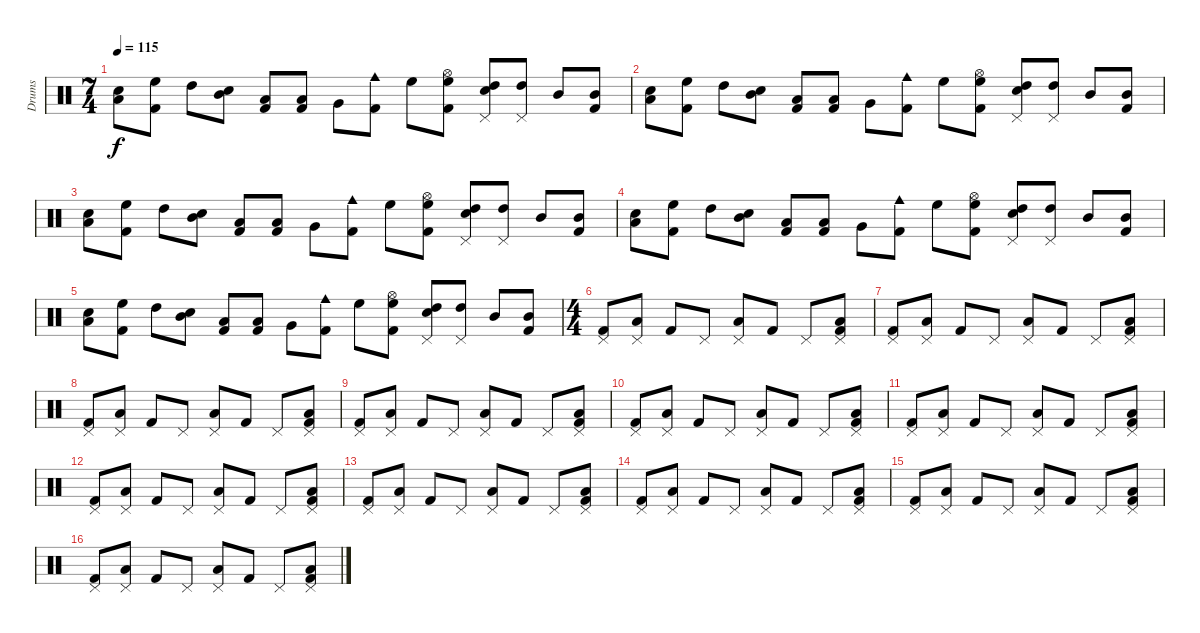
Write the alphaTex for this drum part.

\track ("Drums" "Drums") {instrument percussion}
\staff {score}
\articulation defaults
\ts (7 4)
\tempo 115
\clef neutral
\ks c
("Low Floor Tom (hit)" "Electric Snare (hit)").8{dy f} ("High Floor Tom (hit)" "Kick (hit) 2").8 "High Tom (hit)".8 ("Mid Tom (hit)" "Electric Snare (hit)").8 ("Low Tom (hit)" "Kick (hit) 2").8 ("Low Floor Tom (hit)" "Kick (hit) 2").8 "Very Low Tom (hit)".8 ("Cowbell medium (hit)" "Kick (hit) 2").8 "High Floor Tom (hit)".8 ("High Floor Tom (hit)" "Hi-Hat (open)" "Kick (hit) 2").8 ("High Tom (hit)" "Electric Snare (hit)" "Pedal Hi-Hat (hit)").8 ("High Tom (hit)" "Pedal Hi-Hat (hit)").8 "Mid Tom (hit)".8 ("Mid Tom (hit)" "Kick (hit) 2").8 |
("Low Floor Tom (hit)" "Electric Snare (hit)").8 ("High Floor Tom (hit)" "Kick (hit) 2").8 "High Tom (hit)".8 ("Mid Tom (hit)" "Electric Snare (hit)").8 ("Low Tom (hit)" "Kick (hit) 2").8 ("Low Floor Tom (hit)" "Kick (hit) 2").8 "Very Low Tom (hit)".8 ("Cowbell medium (hit)" "Kick (hit) 2").8 "High Floor Tom (hit)".8 ("High Floor Tom (hit)" "Hi-Hat (open)" "Kick (hit) 2").8 ("High Tom (hit)" "Electric Snare (hit)" "Pedal Hi-Hat (hit)").8 ("High Tom (hit)" "Pedal Hi-Hat (hit)").8 "Mid Tom (hit)".8 ("Mid Tom (hit)" "Kick (hit) 2").8 |
("Low Floor Tom (hit)" "Electric Snare (hit)").8 ("High Floor Tom (hit)" "Kick (hit) 2").8 "High Tom (hit)".8 ("Mid Tom (hit)" "Electric Snare (hit)").8 ("Low Tom (hit)" "Kick (hit) 2").8 ("Low Floor Tom (hit)" "Kick (hit) 2").8 "Very Low Tom (hit)".8 ("Cowbell medium (hit)" "Kick (hit) 2").8 "High Floor Tom (hit)".8 ("High Floor Tom (hit)" "Hi-Hat (open)" "Kick (hit) 2").8 ("High Tom (hit)" "Electric Snare (hit)" "Pedal Hi-Hat (hit)").8 ("High Tom (hit)" "Pedal Hi-Hat (hit)").8 "Mid Tom (hit)".8 ("Mid Tom (hit)" "Kick (hit) 2").8 |
("Low Floor Tom (hit)" "Electric Snare (hit)").8 ("High Floor Tom (hit)" "Kick (hit) 2").8 "High Tom (hit)".8 ("Mid Tom (hit)" "Electric Snare (hit)").8 ("Low Tom (hit)" "Kick (hit) 2").8 ("Low Floor Tom (hit)" "Kick (hit) 2").8 "Very Low Tom (hit)".8 ("Cowbell medium (hit)" "Kick (hit) 2").8 "High Floor Tom (hit)".8 ("High Floor Tom (hit)" "Hi-Hat (open)" "Kick (hit) 2").8 ("High Tom (hit)" "Electric Snare (hit)" "Pedal Hi-Hat (hit)").8 ("High Tom (hit)" "Pedal Hi-Hat (hit)").8 "Mid Tom (hit)".8 ("Mid Tom (hit)" "Kick (hit) 2").8 |
("Low Floor Tom (hit)" "Electric Snare (hit)").8 ("High Floor Tom (hit)" "Kick (hit) 2").8 "High Tom (hit)".8 ("Mid Tom (hit)" "Electric Snare (hit)").8 ("Low Tom (hit)" "Kick (hit) 2").8 ("Low Floor Tom (hit)" "Kick (hit) 2").8 "Very Low Tom (hit)".8 ("Cowbell medium (hit)" "Kick (hit) 2").8 "High Floor Tom (hit)".8 ("High Floor Tom (hit)" "Hi-Hat (open)" "Kick (hit) 2").8 ("High Tom (hit)" "Electric Snare (hit)" "Pedal Hi-Hat (hit)").8 ("High Tom (hit)" "Pedal Hi-Hat (hit)").8 "Mid Tom (hit)".8 ("Mid Tom (hit)" "Kick (hit) 2").8 |
\ts (4 4)
("Pedal Hi-Hat (hit)" "Kick (hit) 2").8 ("Pedal Hi-Hat (hit)" "Low Floor Tom (hit)").8 "Kick (hit) 2".8 "Pedal Hi-Hat (hit)".8 ("Pedal Hi-Hat (hit)" "Low Floor Tom (hit)").8 "Kick (hit) 2".8 "Pedal Hi-Hat (hit)".8 ("Pedal Hi-Hat (hit)" "Kick (hit) 2" "Low Floor Tom (hit)").8 |
("Pedal Hi-Hat (hit)" "Kick (hit) 2").8 ("Pedal Hi-Hat (hit)" "Low Floor Tom (hit)").8 "Kick (hit) 2".8 "Pedal Hi-Hat (hit)".8 ("Pedal Hi-Hat (hit)" "Low Floor Tom (hit)").8 "Kick (hit) 2".8 "Pedal Hi-Hat (hit)".8 ("Pedal Hi-Hat (hit)" "Kick (hit) 2" "Low Floor Tom (hit)").8 |
("Pedal Hi-Hat (hit)" "Kick (hit) 2").8 ("Pedal Hi-Hat (hit)" "Low Floor Tom (hit)").8 "Kick (hit) 2".8 "Pedal Hi-Hat (hit)".8 ("Pedal Hi-Hat (hit)" "Low Floor Tom (hit)").8 "Kick (hit) 2".8 "Pedal Hi-Hat (hit)".8 ("Pedal Hi-Hat (hit)" "Kick (hit) 2" "Low Floor Tom (hit)").8 |
("Pedal Hi-Hat (hit)" "Kick (hit) 2").8 ("Pedal Hi-Hat (hit)" "Low Floor Tom (hit)").8 "Kick (hit) 2".8 "Pedal Hi-Hat (hit)".8 ("Pedal Hi-Hat (hit)" "Low Floor Tom (hit)").8 "Kick (hit) 2".8 "Pedal Hi-Hat (hit)".8 ("Pedal Hi-Hat (hit)" "Kick (hit) 2" "Low Floor Tom (hit)").8 |
("Pedal Hi-Hat (hit)" "Kick (hit) 2").8 ("Pedal Hi-Hat (hit)" "Low Floor Tom (hit)").8 "Kick (hit) 2".8 "Pedal Hi-Hat (hit)".8 ("Pedal Hi-Hat (hit)" "Low Floor Tom (hit)").8 "Kick (hit) 2".8 "Pedal Hi-Hat (hit)".8 ("Pedal Hi-Hat (hit)" "Kick (hit) 2" "Low Floor Tom (hit)").8 |
("Pedal Hi-Hat (hit)" "Kick (hit) 2").8 ("Pedal Hi-Hat (hit)" "Low Floor Tom (hit)").8 "Kick (hit) 2".8 "Pedal Hi-Hat (hit)".8 ("Pedal Hi-Hat (hit)" "Low Floor Tom (hit)").8 "Kick (hit) 2".8 "Pedal Hi-Hat (hit)".8 ("Pedal Hi-Hat (hit)" "Kick (hit) 2" "Low Floor Tom (hit)").8 |
("Pedal Hi-Hat (hit)" "Kick (hit) 2").8 ("Pedal Hi-Hat (hit)" "Low Floor Tom (hit)").8 "Kick (hit) 2".8 "Pedal Hi-Hat (hit)".8 ("Pedal Hi-Hat (hit)" "Low Floor Tom (hit)").8 "Kick (hit) 2".8 "Pedal Hi-Hat (hit)".8 ("Pedal Hi-Hat (hit)" "Kick (hit) 2" "Low Floor Tom (hit)").8 |
("Pedal Hi-Hat (hit)" "Kick (hit) 2").8 ("Pedal Hi-Hat (hit)" "Low Floor Tom (hit)").8 "Kick (hit) 2".8 "Pedal Hi-Hat (hit)".8 ("Pedal Hi-Hat (hit)" "Low Floor Tom (hit)").8 "Kick (hit) 2".8 "Pedal Hi-Hat (hit)".8 ("Pedal Hi-Hat (hit)" "Kick (hit) 2" "Low Floor Tom (hit)").8 |
("Pedal Hi-Hat (hit)" "Kick (hit) 2").8 ("Pedal Hi-Hat (hit)" "Low Floor Tom (hit)").8 "Kick (hit) 2".8 "Pedal Hi-Hat (hit)".8 ("Pedal Hi-Hat (hit)" "Low Floor Tom (hit)").8 "Kick (hit) 2".8 "Pedal Hi-Hat (hit)".8 ("Pedal Hi-Hat (hit)" "Kick (hit) 2" "Low Floor Tom (hit)").8 |
("Pedal Hi-Hat (hit)" "Kick (hit) 2").8 ("Pedal Hi-Hat (hit)" "Low Floor Tom (hit)").8 "Kick (hit) 2".8 "Pedal Hi-Hat (hit)".8 ("Pedal Hi-Hat (hit)" "Low Floor Tom (hit)").8 "Kick (hit) 2".8 "Pedal Hi-Hat (hit)".8 ("Pedal Hi-Hat (hit)" "Kick (hit) 2" "Low Floor Tom (hit)").8 |
("Pedal Hi-Hat (hit)" "Kick (hit) 2").8 ("Pedal Hi-Hat (hit)" "Low Floor Tom (hit)").8 "Kick (hit) 2".8 "Pedal Hi-Hat (hit)".8 ("Pedal Hi-Hat (hit)" "Low Floor Tom (hit)").8 "Kick (hit) 2".8 "Pedal Hi-Hat (hit)".8 ("Pedal Hi-Hat (hit)" "Kick (hit) 2" "Low Floor Tom (hit)").8
